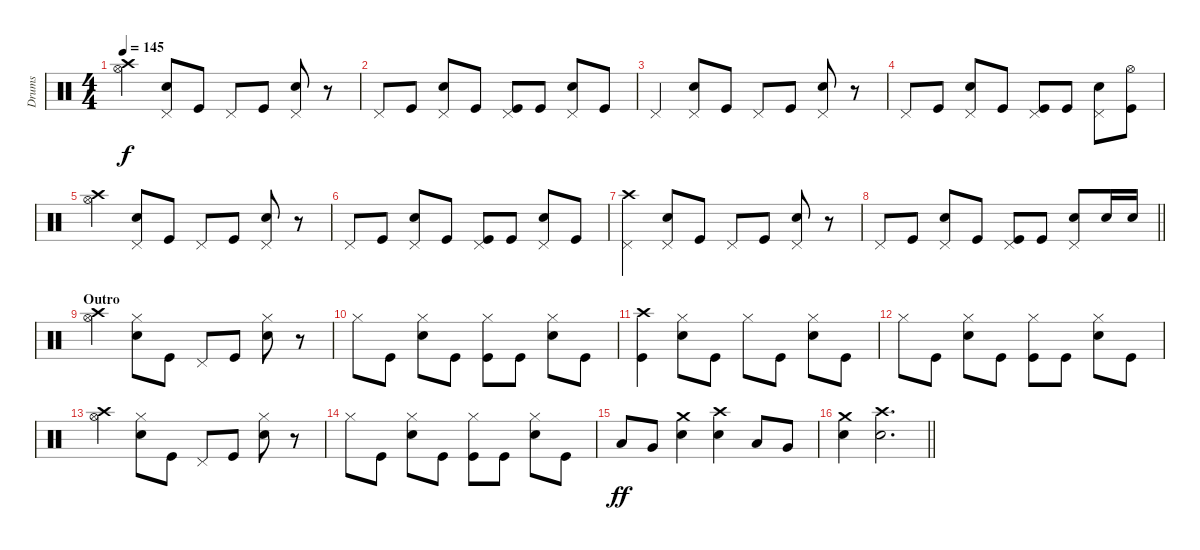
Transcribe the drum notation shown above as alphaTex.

\track ("Drums" "Drums") {instrument percussion}
\staff {score}
\articulation defaults
\ts (4 4)
\tempo 145
\clef neutral
\ks c
("Crash high (hit)" "Hi-Hat (open)").4{dy f} ("Pedal Hi-Hat (hit)" "Snare (hit) 2").8 "Kick (hit)".8 "Pedal Hi-Hat (hit)".8 "Kick (hit)".8 ("Pedal Hi-Hat (hit)" "Snare (hit) 2").8 r.8 |
"Pedal Hi-Hat (hit)".8 "Kick (hit)".8 ("Pedal Hi-Hat (hit)" "Snare (hit) 2").8 "Kick (hit)".8 ("Pedal Hi-Hat (hit)" "Kick (hit)").8 "Kick (hit)".8 ("Pedal Hi-Hat (hit)" "Snare (hit) 2").8 "Kick (hit)".8 |
"Pedal Hi-Hat (hit)".4 ("Pedal Hi-Hat (hit)" "Snare (hit) 2").8 "Kick (hit)".8 "Pedal Hi-Hat (hit)".8 "Kick (hit)".8 ("Pedal Hi-Hat (hit)" "Snare (hit) 2").8 r.8 |
"Pedal Hi-Hat (hit)".8 "Kick (hit)".8 ("Pedal Hi-Hat (hit)" "Snare (hit) 2").8 "Kick (hit)".8 ("Pedal Hi-Hat (hit)" "Kick (hit)").8 "Kick (hit)".8 ("Pedal Hi-Hat (hit)" "Snare (hit) 2").8 ("Hi-Hat (open)" "Kick (hit)").8 |
("Crash high (hit)" "Hi-Hat (open)").4 ("Pedal Hi-Hat (hit)" "Snare (hit) 2").8 "Kick (hit)".8 "Pedal Hi-Hat (hit)".8 "Kick (hit)".8 ("Pedal Hi-Hat (hit)" "Snare (hit) 2").8 r.8 |
"Pedal Hi-Hat (hit)".8 "Kick (hit)".8 ("Pedal Hi-Hat (hit)" "Snare (hit) 2").8 "Kick (hit)".8 ("Pedal Hi-Hat (hit)" "Kick (hit)").8 "Kick (hit)".8 ("Pedal Hi-Hat (hit)" "Snare (hit) 2").8 "Kick (hit)".8 |
("Crash high (hit)" "Pedal Hi-Hat (hit)").4 ("Pedal Hi-Hat (hit)" "Snare (hit) 2").8 "Kick (hit)".8 "Pedal Hi-Hat (hit)".8 "Kick (hit)".8 ("Pedal Hi-Hat (hit)" "Snare (hit) 2").8 r.8 |
\barLineRight lightlight "Pedal Hi-Hat (hit)".8 "Kick (hit)".8
("Pedal Hi-Hat (hit)" "Snare (hit) 2").8 "Kick (hit)".8 ("Pedal Hi-Hat (hit)" "Kick (hit)").8 "Kick (hit)".8 ("Pedal Hi-Hat (hit)" "Snare (hit) 2").8 "Snare (hit) 2".16 "Snare (hit) 2".16 |
\section ("" "Outro")
("Crash high (hit)" "Hi-Hat (open)").4 ("Hi-Hat (closed)" "Snare (hit) 2").8 "Kick (hit)".8 "Pedal Hi-Hat (hit)".8 "Kick (hit)".8 ("Hi-Hat (closed)" "Snare (hit) 2").8 r.8 |
"Hi-Hat (closed)".8 "Kick (hit)".8 ("Hi-Hat (closed)" "Snare (hit) 2").8 "Kick (hit)".8 ("Hi-Hat (closed)" "Kick (hit)").8 "Kick (hit)".8 ("Hi-Hat (closed)" "Snare (hit) 2").8 "Kick (hit)".8 |
("Crash high (hit)" "Kick (hit)").4 ("Hi-Hat (closed)" "Snare (hit) 2").8 "Kick (hit)".8 "Hi-Hat (closed)".8 "Kick (hit)".8 ("Hi-Hat (closed)" "Snare (hit) 2").8 "Kick (hit)".8 |
"Hi-Hat (closed)".8 "Kick (hit)".8 ("Hi-Hat (closed)" "Snare (hit) 2").8 "Kick (hit)".8 ("Hi-Hat (closed)" "Kick (hit)").8 "Kick (hit)".8 ("Hi-Hat (closed)" "Snare (hit) 2").8 "Kick (hit)".8 |
("Crash high (hit)" "Hi-Hat (open)").4 ("Hi-Hat (closed)" "Snare (hit) 2").8 "Kick (hit)".8 "Pedal Hi-Hat (hit)".8 "Kick (hit)".8 ("Hi-Hat (closed)" "Snare (hit) 2").8 r.8 |
"Hi-Hat (closed)".8 "Kick (hit)".8 ("Hi-Hat (closed)" "Snare (hit) 2").8 "Kick (hit)".8 ("Hi-Hat (closed)" "Kick (hit)").8 "Kick (hit)".8 ("Hi-Hat (closed)" "Snare (hit) 2").8 "Kick (hit)".8 |
"Low Tom (hit)".8{dy ff} "Very Low Tom (hit)".8 ("Crash medium (hit)" "Snare (hit) 2").4 ("Crash high (hit)" "Snare (hit) 2").4 "Low Tom (hit)".8 "Very Low Tom (hit)".8 |
\barLineRight lightlight
("Crash medium (hit)" "Snare (hit) 2").4 ("Crash high (hit)" "Snare (hit) 2").2{d}
